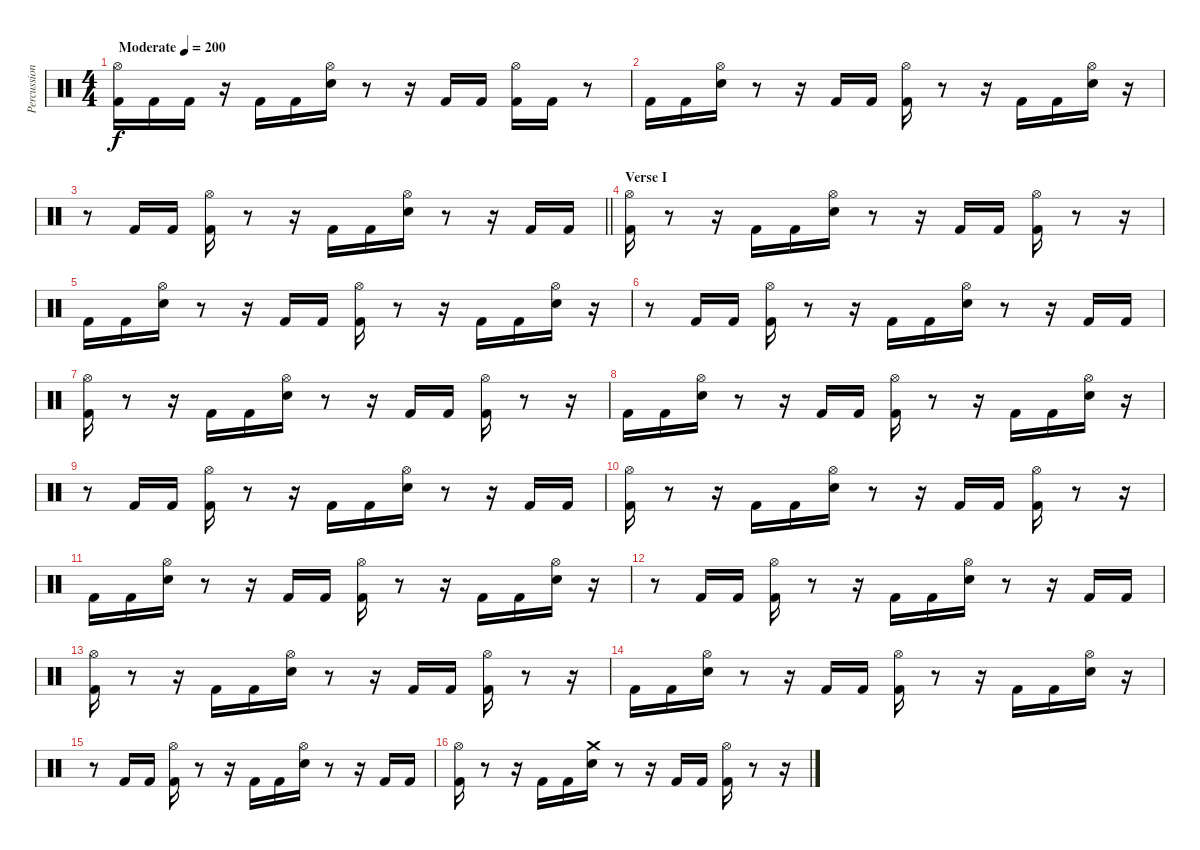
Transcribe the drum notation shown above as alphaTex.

\track ("Percussion" "Percussion") {instrument percussion}
\staff {score}
\articulation defaults
\ts (4 4)
\tempo (200 "Moderate")
\clef neutral
\ks c
("Hi-Hat (open)" "Kick (hit) 2").16{dy f} "Kick (hit) 2".16 "Kick (hit) 2".16 r.16 "Kick (hit) 2".16 "Kick (hit) 2".16 ("Hi-Hat (open)" "Electric Snare (hit)").16 r.8 r.16 "Kick (hit) 2".16 "Kick (hit) 2".16 ("Hi-Hat (open)" "Kick (hit) 2").16 "Kick (hit) 2".16 r.8 |
"Kick (hit) 2".16 "Kick (hit) 2".16 ("Hi-Hat (open)" "Electric Snare (hit)").16 r.8 r.16 "Kick (hit) 2".16 "Kick (hit) 2".16 ("Hi-Hat (open)" "Kick (hit) 2").16 r.8 r.16 "Kick (hit) 2".16 "Kick (hit) 2".16 ("Hi-Hat (open)" "Electric Snare (hit)").16 r.16 |
\barLineRight lightlight
r.8 "Kick (hit) 2".16 "Kick (hit) 2".16 ("Hi-Hat (open)" "Kick (hit) 2").16 r.8 r.16 "Kick (hit) 2".16 "Kick (hit) 2".16 ("Hi-Hat (open)" "Electric Snare (hit)").16 r.8 r.16 "Kick (hit) 2".16 "Kick (hit) 2".16 |
\section ("" "Verse I")
("Hi-Hat (open)" "Kick (hit) 2").16 r.8 r.16 "Kick (hit) 2".16 "Kick (hit) 2".16 ("Hi-Hat (open)" "Electric Snare (hit)").16 r.8 r.16 "Kick (hit) 2".16 "Kick (hit) 2".16 ("Hi-Hat (open)" "Kick (hit) 2").16 r.8 r.16 |
"Kick (hit) 2".16 "Kick (hit) 2".16 ("Hi-Hat (open)" "Electric Snare (hit)").16 r.8 r.16 "Kick (hit) 2".16 "Kick (hit) 2".16 ("Hi-Hat (open)" "Kick (hit) 2").16 r.8 r.16 "Kick (hit) 2".16 "Kick (hit) 2".16 ("Hi-Hat (open)" "Electric Snare (hit)").16 r.16 |
r.8 "Kick (hit) 2".16 "Kick (hit) 2".16 ("Hi-Hat (open)" "Kick (hit) 2").16 r.8 r.16 "Kick (hit) 2".16 "Kick (hit) 2".16 ("Hi-Hat (open)" "Electric Snare (hit)").16 r.8 r.16 "Kick (hit) 2".16 "Kick (hit) 2".16 |
("Hi-Hat (open)" "Kick (hit) 2").16 r.8 r.16 "Kick (hit) 2".16 "Kick (hit) 2".16 ("Hi-Hat (open)" "Electric Snare (hit)").16 r.8 r.16 "Kick (hit) 2".16 "Kick (hit) 2".16 ("Hi-Hat (open)" "Kick (hit) 2").16 r.8 r.16 |
"Kick (hit) 2".16 "Kick (hit) 2".16 ("Hi-Hat (open)" "Electric Snare (hit)").16 r.8 r.16 "Kick (hit) 2".16 "Kick (hit) 2".16 ("Hi-Hat (open)" "Kick (hit) 2").16 r.8 r.16 "Kick (hit) 2".16 "Kick (hit) 2".16 ("Hi-Hat (open)" "Electric Snare (hit)").16 r.16 |
r.8 "Kick (hit) 2".16 "Kick (hit) 2".16 ("Hi-Hat (open)" "Kick (hit) 2").16 r.8 r.16 "Kick (hit) 2".16 "Kick (hit) 2".16 ("Hi-Hat (open)" "Electric Snare (hit)").16 r.8 r.16 "Kick (hit) 2".16 "Kick (hit) 2".16 |
("Hi-Hat (open)" "Kick (hit) 2").16 r.8 r.16 "Kick (hit) 2".16 "Kick (hit) 2".16 ("Hi-Hat (open)" "Electric Snare (hit)").16 r.8 r.16 "Kick (hit) 2".16 "Kick (hit) 2".16 ("Hi-Hat (open)" "Kick (hit) 2").16 r.8 r.16 |
"Kick (hit) 2".16 "Kick (hit) 2".16 ("Hi-Hat (open)" "Electric Snare (hit)").16 r.8 r.16 "Kick (hit) 2".16 "Kick (hit) 2".16 ("Hi-Hat (open)" "Kick (hit) 2").16 r.8 r.16 "Kick (hit) 2".16 "Kick (hit) 2".16 ("Hi-Hat (open)" "Electric Snare (hit)").16 r.16 |
r.8 "Kick (hit) 2".16 "Kick (hit) 2".16 ("Hi-Hat (open)" "Kick (hit) 2").16 r.8 r.16 "Kick (hit) 2".16 "Kick (hit) 2".16 ("Hi-Hat (open)" "Electric Snare (hit)").16 r.8 r.16 "Kick (hit) 2".16 "Kick (hit) 2".16 |
("Hi-Hat (open)" "Kick (hit) 2").16 r.8 r.16 "Kick (hit) 2".16 "Kick (hit) 2".16 ("Hi-Hat (open)" "Electric Snare (hit)").16 r.8 r.16 "Kick (hit) 2".16 "Kick (hit) 2".16 ("Hi-Hat (open)" "Kick (hit) 2").16 r.8 r.16 |
"Kick (hit) 2".16 "Kick (hit) 2".16 ("Hi-Hat (open)" "Electric Snare (hit)").16 r.8 r.16 "Kick (hit) 2".16 "Kick (hit) 2".16 ("Hi-Hat (open)" "Kick (hit) 2").16 r.8 r.16 "Kick (hit) 2".16 "Kick (hit) 2".16 ("Hi-Hat (open)" "Electric Snare (hit)").16 r.16 |
r.8 "Kick (hit) 2".16 "Kick (hit) 2".16 ("Hi-Hat (open)" "Kick (hit) 2").16 r.8 r.16 "Kick (hit) 2".16 "Kick (hit) 2".16 ("Hi-Hat (open)" "Electric Snare (hit)").16 r.8 r.16 "Kick (hit) 2".16 "Kick (hit) 2".16 |
("Hi-Hat (open)" "Kick (hit) 2").16 r.8 r.16 "Kick (hit) 2".16 "Kick (hit) 2".16 ("Crash medium (hit)" "Electric Snare (hit)").16 r.8 r.16 "Kick (hit) 2".16 "Kick (hit) 2".16 ("Hi-Hat (open)" "Kick (hit) 2").16 r.8 r.16
